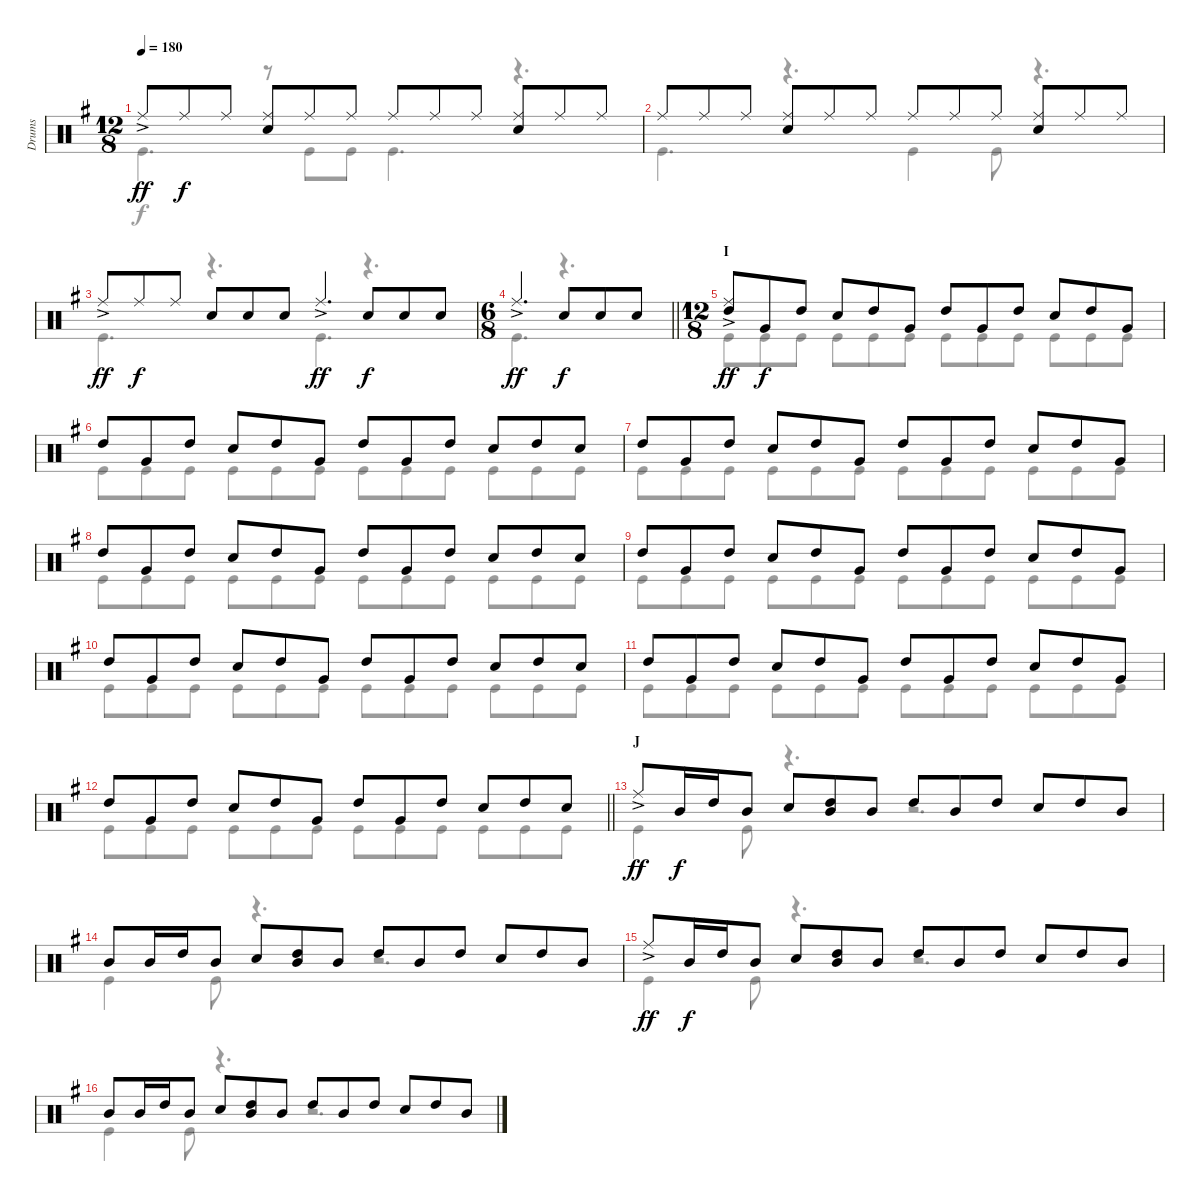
\track ("Drums" "Drums") {instrument percussion}
\staff {score}
\articulation defaults
\voice
\ts (12 8)
\tempo 180
\clef neutral
\ks g "Ride (middle)"{ac}.8{dy ff} "Ride (middle)".8{dy f} "Ride (middle)".8
("Ride (middle)" "Snare (hit) 2").8 "Ride (middle)".8 "Ride (middle)".8 "Ride (middle)".8 "Ride (middle)".8 "Ride (middle)".8 ("Ride (middle)" "Snare (hit) 2").8 "Ride (middle)".8 "Ride (middle)".8 |
"Ride (middle)".8 "Ride (middle)".8 "Ride (middle)".8 ("Ride (middle)" "Snare (hit) 2").8 "Ride (middle)".8 "Ride (middle)".8 "Ride (middle)".8 "Ride (middle)".8 "Ride (middle)".8 ("Ride (middle)" "Snare (hit) 2").8 "Ride (middle)".8 "Ride (middle)".8 |
"Ride (middle)"{ac}.8{dy ff} "Ride (middle)".8{dy f} "Ride (middle)".8 "Snare (hit) 2".8 "Snare (hit) 2".8 "Snare (hit) 2".8 "Ride (middle)"{ac}.4{d dy ff} "Snare (hit) 2".8{dy f} "Snare (hit) 2".8 "Snare (hit) 2".8 |
\ts (6 8)
\barLineRight lightlight "Ride (middle)"{ac}.4{d dy ff} "Snare (hit) 2".8{dy f} "Snare (hit) 2".8 "Snare (hit) 2".8
|
\ts (12 8)
\section ("" "I")
("Ride (middle)"{ac} "High Tom (hit)").8{dy ff} "Very Low Tom (hit)".8{dy f} "High Tom (hit)".8 "Snare (hit) 2".8 "High Tom (hit)".8 "Very Low Tom (hit)".8 "High Tom (hit)".8 "Very Low Tom (hit)".8 "High Tom (hit)".8 "Snare (hit) 2".8 "High Tom (hit)".8 "Very Low Tom (hit)".8 |
"High Tom (hit)".8 "Very Low Tom (hit)".8 "High Tom (hit)".8 "Snare (hit) 2".8 "High Tom (hit)".8 "Very Low Tom (hit)".8 "High Tom (hit)".8 "Very Low Tom (hit)".8 "High Tom (hit)".8 "Snare (hit) 2".8 "High Tom (hit)".8 "Snare (hit) 2".8 |
"High Tom (hit)".8 "Very Low Tom (hit)".8 "High Tom (hit)".8 "Snare (hit) 2".8 "High Tom (hit)".8 "Very Low Tom (hit)".8 "High Tom (hit)".8 "Very Low Tom (hit)".8 "High Tom (hit)".8 "Snare (hit) 2".8 "High Tom (hit)".8 "Very Low Tom (hit)".8 |
"High Tom (hit)".8 "Very Low Tom (hit)".8 "High Tom (hit)".8 "Snare (hit) 2".8 "High Tom (hit)".8 "Very Low Tom (hit)".8 "High Tom (hit)".8 "Very Low Tom (hit)".8 "High Tom (hit)".8 "Snare (hit) 2".8 "High Tom (hit)".8 "Snare (hit) 2".8 |
"High Tom (hit)".8 "Very Low Tom (hit)".8 "High Tom (hit)".8 "Snare (hit) 2".8 "High Tom (hit)".8 "Very Low Tom (hit)".8 "High Tom (hit)".8 "Very Low Tom (hit)".8 "High Tom (hit)".8 "Snare (hit) 2".8 "High Tom (hit)".8 "Very Low Tom (hit)".8 |
"High Tom (hit)".8 "Very Low Tom (hit)".8 "High Tom (hit)".8 "Snare (hit) 2".8 "High Tom (hit)".8 "Very Low Tom (hit)".8 "High Tom (hit)".8 "Very Low Tom (hit)".8 "High Tom (hit)".8 "Snare (hit) 2".8 "High Tom (hit)".8 "Snare (hit) 2".8 |
"High Tom (hit)".8 "Very Low Tom (hit)".8 "High Tom (hit)".8 "Snare (hit) 2".8 "High Tom (hit)".8 "Very Low Tom (hit)".8 "High Tom (hit)".8 "Very Low Tom (hit)".8 "High Tom (hit)".8 "Snare (hit) 2".8 "High Tom (hit)".8 "Very Low Tom (hit)".8 |
\barLineRight lightlight "High Tom (hit)".8 "Very Low Tom (hit)".8 "High Tom (hit)".8 "Snare (hit) 2".8 "High Tom (hit)".8 "Very Low Tom (hit)".8 "High Tom (hit)".8 "Very Low Tom (hit)".8 "High Tom (hit)".8 "Snare (hit) 2".8 "High Tom (hit)".8 "Snare (hit) 2".8
|
\section ("" "J")
"Ride (middle)"{ac}.8{dy ff} "Mid Tom (hit)".16{dy f} "High Tom (hit)".16 "Mid Tom (hit)".8 "Snare (hit) 2".8 ("High Tom (hit)" "Mid Tom (hit)").8 "Mid Tom (hit)".8 "High Tom (hit)".8 "Mid Tom (hit)".8 "High Tom (hit)".8 "Snare (hit) 2".8 "High Tom (hit)".8 "Mid Tom (hit)".8 |
"Mid Tom (hit)".8 "Mid Tom (hit)".16 "High Tom (hit)".16 "Mid Tom (hit)".8 "Snare (hit) 2".8 ("High Tom (hit)" "Mid Tom (hit)").8 "Mid Tom (hit)".8 "High Tom (hit)".8 "Mid Tom (hit)".8 "High Tom (hit)".8 "Snare (hit) 2".8 "High Tom (hit)".8 "Mid Tom (hit)".8 |
"Ride (middle)"{ac}.8{dy ff} "Mid Tom (hit)".16{dy f} "High Tom (hit)".16 "Mid Tom (hit)".8 "Snare (hit) 2".8 ("High Tom (hit)" "Mid Tom (hit)").8 "Mid Tom (hit)".8 "High Tom (hit)".8 "Mid Tom (hit)".8 "High Tom (hit)".8 "Snare (hit) 2".8 "High Tom (hit)".8 "Mid Tom (hit)".8 |
"Mid Tom (hit)".8 "Mid Tom (hit)".16 "High Tom (hit)".16 "Mid Tom (hit)".8 "Snare (hit) 2".8 ("High Tom (hit)" "Mid Tom (hit)").8 "Mid Tom (hit)".8 "High Tom (hit)".8 "Mid Tom (hit)".8 "High Tom (hit)".8 "Snare (hit) 2".8 "High Tom (hit)".8 "Mid Tom (hit)".8
\voice
\clef neutral
\ottava regular
\simile none
\ks g "Kick (hit)".4{d dy f}
r.8 "Kick (hit)".8 "Kick (hit)".8 "Kick (hit)".4{d} r.4{d} |
"Kick (hit)".4{d} r.4{d} "Kick (hit)".4 "Kick (hit)".8 r.4{d} |
"Kick (hit)".4{d} r.4{d} "Kick (hit)".4{d} r.4{d} |
\barLineRight lightlight "Kick (hit)".4{d}
r.4{d} |
"Kick (hit)".8 "Kick (hit)".8 "Kick (hit)".8 "Kick (hit)".8 "Kick (hit)".8 "Kick (hit)".8 "Kick (hit)".8 "Kick (hit)".8 "Kick (hit)".8 "Kick (hit)".8 "Kick (hit)".8 "Kick (hit)".8 |
"Kick (hit)".8 "Kick (hit)".8 "Kick (hit)".8 "Kick (hit)".8 "Kick (hit)".8 "Kick (hit)".8 "Kick (hit)".8 "Kick (hit)".8 "Kick (hit)".8 "Kick (hit)".8 "Kick (hit)".8 "Kick (hit)".8 |
"Kick (hit)".8 "Kick (hit)".8 "Kick (hit)".8 "Kick (hit)".8 "Kick (hit)".8 "Kick (hit)".8 "Kick (hit)".8 "Kick (hit)".8 "Kick (hit)".8 "Kick (hit)".8 "Kick (hit)".8 "Kick (hit)".8 |
"Kick (hit)".8 "Kick (hit)".8 "Kick (hit)".8 "Kick (hit)".8 "Kick (hit)".8 "Kick (hit)".8 "Kick (hit)".8 "Kick (hit)".8 "Kick (hit)".8 "Kick (hit)".8 "Kick (hit)".8 "Kick (hit)".8 |
"Kick (hit)".8 "Kick (hit)".8 "Kick (hit)".8 "Kick (hit)".8 "Kick (hit)".8 "Kick (hit)".8 "Kick (hit)".8 "Kick (hit)".8 "Kick (hit)".8 "Kick (hit)".8 "Kick (hit)".8 "Kick (hit)".8 |
"Kick (hit)".8 "Kick (hit)".8 "Kick (hit)".8 "Kick (hit)".8 "Kick (hit)".8 "Kick (hit)".8 "Kick (hit)".8 "Kick (hit)".8 "Kick (hit)".8 "Kick (hit)".8 "Kick (hit)".8 "Kick (hit)".8 |
"Kick (hit)".8 "Kick (hit)".8 "Kick (hit)".8 "Kick (hit)".8 "Kick (hit)".8 "Kick (hit)".8 "Kick (hit)".8 "Kick (hit)".8 "Kick (hit)".8 "Kick (hit)".8 "Kick (hit)".8 "Kick (hit)".8 |
\barLineRight lightlight "Kick (hit)".8 "Kick (hit)".8 "Kick (hit)".8 "Kick (hit)".8 "Kick (hit)".8 "Kick (hit)".8 "Kick (hit)".8 "Kick (hit)".8 "Kick (hit)".8 "Kick (hit)".8 "Kick (hit)".8 "Kick (hit)".8
|
"Kick (hit)".4 "Kick (hit)".8 r.4{d} r.2{d} |
"Kick (hit)".4 "Kick (hit)".8 r.4{d} r.2{d} |
"Kick (hit)".4 "Kick (hit)".8 r.4{d} r.2{d} |
"Kick (hit)".4 "Kick (hit)".8 r.4{d} r.2{d}
